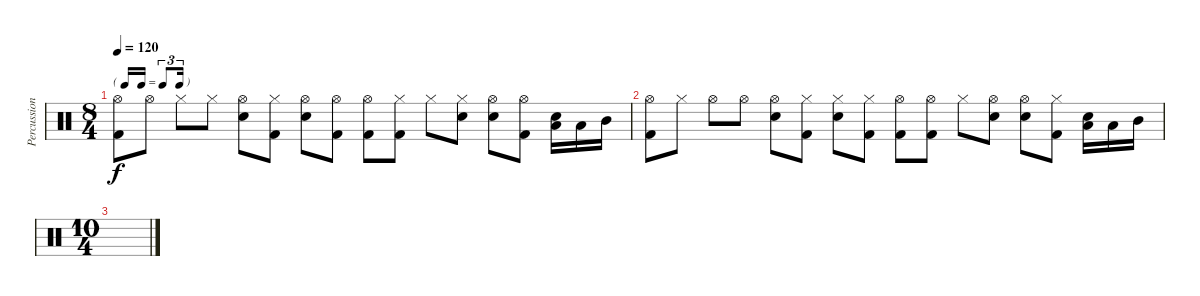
\track ("Percussion" "Percussion") {instrument percussion}
\staff {score}
\articulation defaults
\ts (8 4)
\tf triplet16th
\tempo 120
\clef neutral
\ks c
("Hi-Hat (open)" "Kick (hit) 2").8{dy f} "Hi-Hat (open)".8 "Hi-Hat (closed)".8 "Hi-Hat (closed)".8 ("Hi-Hat (open)" "Snare (hit) 2").8 ("Hi-Hat (closed)" "Kick (hit) 2").8 ("Hi-Hat (open)" "Snare (hit) 2").8 ("Hi-Hat (open)" "Kick (hit) 2").8 ("Hi-Hat (open)" "Kick (hit) 2").8 ("Hi-Hat (closed)" "Kick (hit) 2").8 "Hi-Hat (closed)".8 ("Hi-Hat (closed)" "Snare (hit) 2").8 ("Hi-Hat (open)" "Snare (hit) 2").8 ("Hi-Hat (open)" "Kick (hit) 2").8 ("Low Tom (hit)" "Snare (hit) 2").16 "Low Tom (hit)".16 "Mid Tom (hit)".16 |
("Hi-Hat (open)" "Kick (hit) 2").8 "Hi-Hat (closed)".8 "Hi-Hat (open)".8 "Hi-Hat (open)".8 ("Hi-Hat (open)" "Snare (hit) 2").8 ("Hi-Hat (closed)" "Kick (hit) 2").8 ("Hi-Hat (closed)" "Snare (hit) 2").8 ("Hi-Hat (closed)" "Kick (hit) 2").8 ("Hi-Hat (open)" "Kick (hit) 2").8 ("Hi-Hat (open)" "Kick (hit) 2").8 "Hi-Hat (closed)".8 ("Hi-Hat (open)" "Snare (hit) 2").8 ("Hi-Hat (open)" "Snare (hit) 2").8 ("Hi-Hat (closed)" "Kick (hit) 2").8 ("Low Tom (hit)" "Snare (hit) 2").16 "Low Tom (hit)".16 "Mid Tom (hit)".16 |
\ts (10 4)
